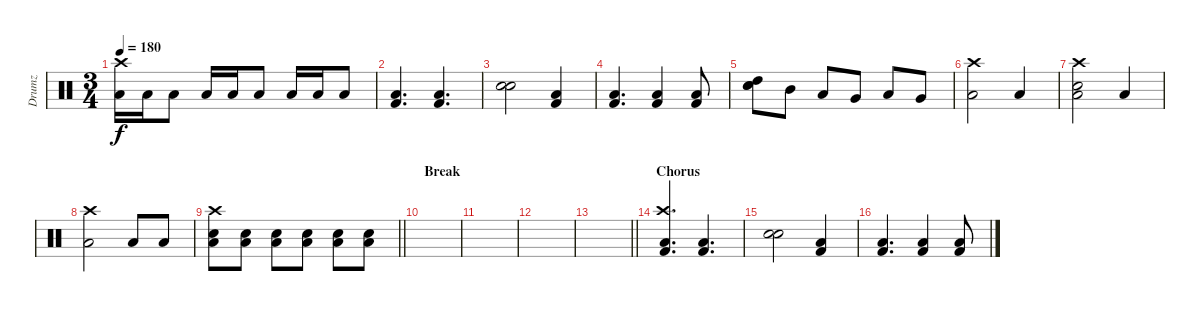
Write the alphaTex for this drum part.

\track ("Drumz" "Drumz") {instrument percussion}
\staff {score}
\articulation defaults
\ts (3 4)
\tempo 180
\clef neutral
\ks c
("Low Floor Tom (hit)" "Crash high (hit)").16{dy f} "Low Floor Tom (hit)".16 "Low Floor Tom (hit)".8 "Low Floor Tom (hit)".16 "Low Floor Tom (hit)".16 "Low Floor Tom (hit)".8 "Low Floor Tom (hit)".16 "Low Floor Tom (hit)".16 "Low Floor Tom (hit)".8 |
("Kick (hit) 2" "Low Floor Tom (hit)").4{d} ("Kick (hit) 2" "Low Floor Tom (hit)").4{d} |
("Electric Snare (hit)" "Electric Snare (hit)").2 ("Kick (hit) 2" "Low Floor Tom (hit)").4 |
("Kick (hit) 2" "Low Floor Tom (hit)").4{d} ("Kick (hit) 2" "Low Floor Tom (hit)").4 ("Kick (hit) 2" "Low Floor Tom (hit)").8 |
("Electric Snare (hit)" "Electric Snare (hit)" "High Tom (hit)").8 "Mid Tom (hit)".8 "Low Tom (hit)".8 "Very Low Tom (hit)".8 "Low Tom (hit)".8 "Very Low Tom (hit)".8 |
("Low Floor Tom (hit)" "Crash high (hit)").2 "Low Floor Tom (hit)".4 |
("Low Floor Tom (hit)" "Crash high (hit)" "Electric Snare (hit)").2 "Low Floor Tom (hit)".4 |
("Low Floor Tom (hit)" "Crash high (hit)").2 "Low Floor Tom (hit)".8 "Low Floor Tom (hit)".8 |
\barLineRight lightlight
("Low Floor Tom (hit)" "Crash high (hit)" "Snare (hit) 2").8 ("Low Floor Tom (hit)" "Snare (hit) 2").8 ("Low Floor Tom (hit)" "Snare (hit) 2").8 ("Low Floor Tom (hit)" "Snare (hit) 2").8 ("Low Floor Tom (hit)" "Snare (hit) 2").8 ("Low Floor Tom (hit)" "Snare (hit) 2").8 |
\section ("" "Break")
|
|
|
\barLineRight lightlight
|
\section ("" "Chorus")
("Kick (hit) 2" "Low Floor Tom (hit)" "Crash high (hit)").4{d} ("Kick (hit) 2" "Low Floor Tom (hit)").4{d} |
("Electric Snare (hit)" "Electric Snare (hit)").2 ("Kick (hit) 2" "Low Floor Tom (hit)").4 |
("Kick (hit) 2" "Low Floor Tom (hit)").4{d} ("Kick (hit) 2" "Low Floor Tom (hit)").4 ("Kick (hit) 2" "Low Floor Tom (hit)").8
